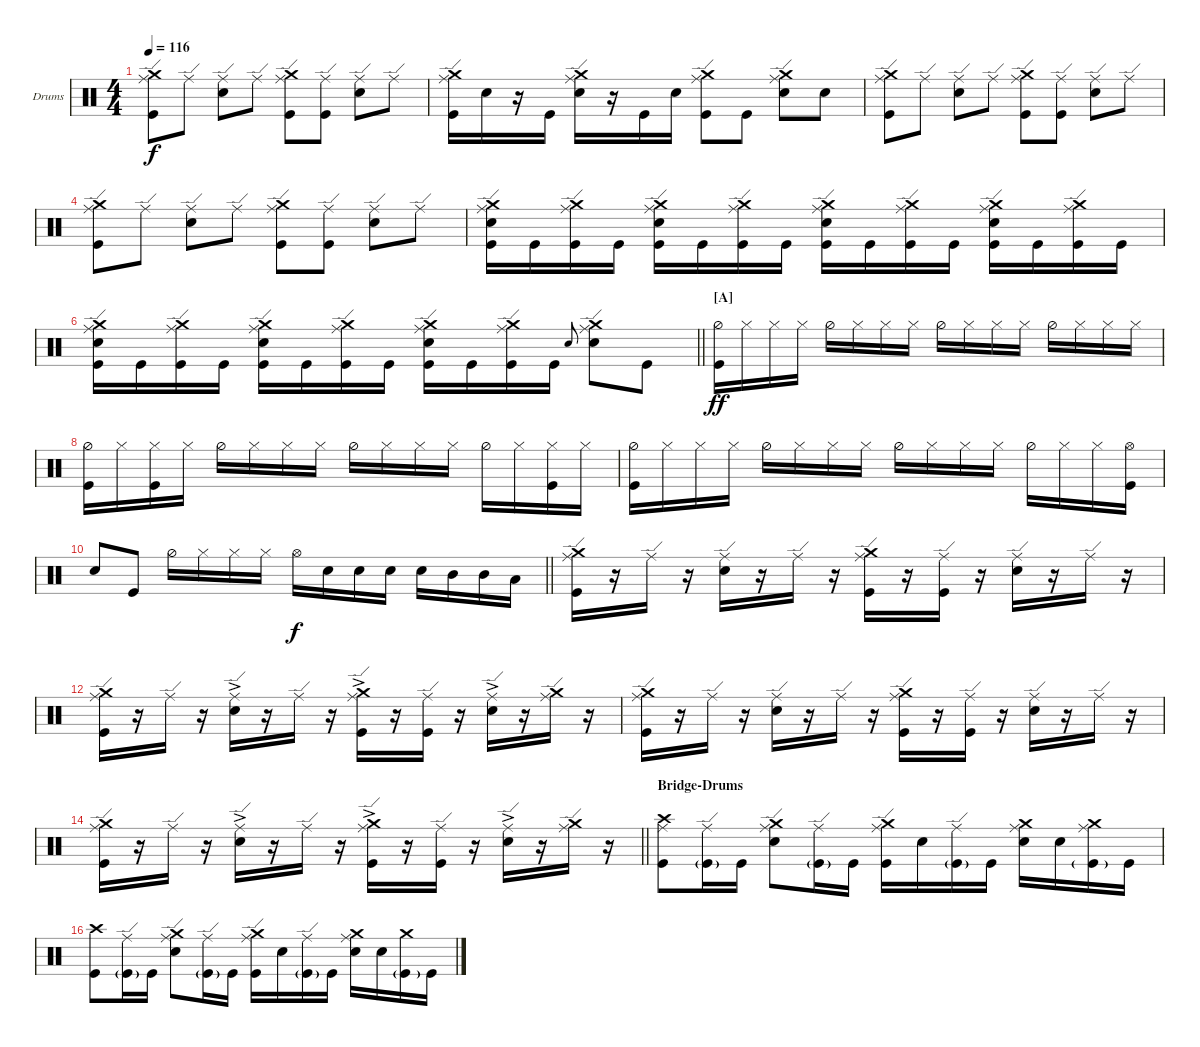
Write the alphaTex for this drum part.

\bracketExtendMode nobrackets
\firstSystemTrackNameOrientation horizontal
\otherSystemsTrackNameOrientation horizontal
\defaultBarNumberDisplay FirstOfSystem
\track ("Drumkit" "Drums") {instrument percussion}
\staff {score}
\articulation defaults
\ts (4 4)
\tempo 116
\clef neutral
\scale
0.514286
\ks c
("Kick (hit)" "Ride (edge)" "Crash medium (hit)").8{dy f} "Ride (edge)".8 ("Snare (hit) 2" "Ride (edge)").8 "Ride (edge)".8 ("Kick (hit)" "Ride (edge)" "Crash medium (hit)").8 ("Kick (hit)" "Ride (edge)").8 ("Snare (hit) 2" "Ride (edge)").8 "Ride (edge)".8 |
\scale
0.485714 ("Kick (hit)" "Ride (edge)" "Crash medium (hit)").16 "Snare (hit) 2".16 r.16 "Kick (hit)".16 ("Snare (hit) 2" "Ride (edge)" "Crash medium (hit)").16 r.16 "Kick (hit)".16 "Snare (hit) 2".16 ("Kick (hit)" "Ride (edge)" "Crash medium (hit)").8 "Kick (hit)".8 ("Snare (hit) 2" "Ride (edge)" "Crash medium (hit)").8 "Snare (hit) 2".8 |
\scale
0.514286 ("Kick (hit)" "Ride (edge)" "Crash medium (hit)").8 "Ride (edge)".8 ("Snare (hit) 2" "Ride (edge)").8 "Ride (edge)".8 ("Kick (hit)" "Ride (edge)" "Crash medium (hit)").8 ("Kick (hit)" "Ride (edge)").8 ("Snare (hit) 2" "Ride (edge)").8 "Ride (edge)".8 |
\scale
0.485714 ("Kick (hit)" "Ride (edge)" "Crash medium (hit)").8 "Ride (edge)".8 ("Snare (hit) 2" "Ride (edge)").8 "Ride (edge)".8 ("Kick (hit)" "Ride (edge)" "Crash medium (hit)").8 ("Kick (hit)" "Ride (edge)").8 ("Snare (hit) 2" "Ride (edge)").8 "Ride (edge)".8 |
\scale
0.507764 ("Crash medium (hit)" "Ride (edge)" "Snare (hit) 2" "Kick (hit)").16 "Kick (hit)".16 ("Crash medium (hit)" "Ride (edge)" "Kick (hit)").16 "Kick (hit)".16 ("Crash medium (hit)" "Ride (edge)" "Snare (hit) 2" "Kick (hit)").16 "Kick (hit)".16 ("Crash medium (hit)" "Ride (edge)" "Kick (hit)").16 "Kick (hit)".16 ("Crash medium (hit)" "Ride (edge)" "Snare (hit) 2" "Kick (hit)").16 "Kick (hit)".16 ("Crash medium (hit)" "Ride (edge)" "Kick (hit)").16 "Kick (hit)".16 ("Crash medium (hit)" "Ride (edge)" "Snare (hit) 2" "Kick (hit)").16 "Kick (hit)".16 ("Crash medium (hit)" "Ride (edge)" "Kick (hit)").16 "Kick (hit)".16 |
\scale
0.492236
\barLineRight lightlight
("Crash medium (hit)" "Ride (edge)" "Snare (hit) 2" "Kick (hit)").16 "Kick (hit)".16 ("Crash medium (hit)" "Ride (edge)" "Kick (hit)").16 "Kick (hit)".16 ("Crash medium (hit)" "Ride (edge)" "Snare (hit) 2" "Kick (hit)").16 "Kick (hit)".16 ("Crash medium (hit)" "Ride (edge)" "Kick (hit)").16 "Kick (hit)".16 ("Crash medium (hit)" "Ride (edge)" "Snare (hit) 2" "Kick (hit)").16 "Kick (hit)".16 ("Crash medium (hit)" "Ride (edge)" "Kick (hit)").16 "Kick (hit)".16 "Snare (hit) 2".8{gr onbeat} ("Crash medium (hit)" "Ride (edge)" "Snare (hit) 2").8 "Kick (hit)".8 |
\section ("A" "")
\scale
0.512275 ("Hi-Hat (half)" "Kick (hit)").16{dy ff} "Hi-Hat (closed)".16 "Hi-Hat (closed)".16 "Hi-Hat (closed)".16 "Hi-Hat (half)".16 "Hi-Hat (closed)".16 "Hi-Hat (closed)".16 "Hi-Hat (closed)".16 "Hi-Hat (half)".16 "Hi-Hat (closed)".16 "Hi-Hat (closed)".16 "Hi-Hat (closed)".16 "Hi-Hat (half)".16 "Hi-Hat (closed)".16 "Hi-Hat (closed)".16 "Hi-Hat (closed)".16 |
\scale
0.487725 ("Hi-Hat (half)" "Kick (hit)").16 "Hi-Hat (closed)".16 ("Hi-Hat (closed)" "Kick (hit)").16 "Hi-Hat (closed)".16 "Hi-Hat (half)".16 "Hi-Hat (closed)".16 "Hi-Hat (closed)".16 "Hi-Hat (closed)".16 "Hi-Hat (half)".16 "Hi-Hat (closed)".16 "Hi-Hat (closed)".16 "Hi-Hat (closed)".16 "Hi-Hat (half)".16 "Hi-Hat (closed)".16 ("Hi-Hat (closed)" "Kick (hit)").16 "Hi-Hat (closed)".16 |
\scale
0.487725 ("Hi-Hat (half)" "Kick (hit)").16 "Hi-Hat (closed)".16 "Hi-Hat (closed)".16 "Hi-Hat (closed)".16 "Hi-Hat (half)".16 "Hi-Hat (closed)".16 "Hi-Hat (closed)".16 "Hi-Hat (closed)".16 "Hi-Hat (half)".16 "Hi-Hat (closed)".16 "Hi-Hat (closed)".16 "Hi-Hat (closed)".16 "Hi-Hat (half)".16 "Hi-Hat (closed)".16 "Hi-Hat (closed)".16 ("Hi-Hat (open)" "Kick (hit)").16 |
\scale
0.512275
\barLineRight lightlight "Snare (hit) 2".8 "Kick (hit)".8 "Hi-Hat (half)".16 "Hi-Hat (closed)".16 "Hi-Hat (closed)".16 "Hi-Hat (closed)".16 "Hi-Hat (open)".16{dy f} "Snare (hit) 2".16 "Snare (hit) 2".16 "Snare (hit) 2".16 "Snare (hit) 2".16 "Mid Tom (hit)".16 "Mid Tom (hit)".16 "Low Tom (hit)".16
|
\scale
0.5 ("Kick (hit)" "Ride (edge)" "Crash medium (hit)").16 r.16 "Ride (edge)".16 r.16 ("Snare (hit) 2" "Ride (edge)").16 r.16 "Ride (edge)".16 r.16 ("Kick (hit)" "Ride (edge)" "Crash medium (hit)").16 r.16 ("Kick (hit)" "Ride (edge)").16 r.16 ("Snare (hit) 2" "Ride (edge)").16 r.16 "Ride (edge)".16 r.16 |
\scale
0.5 ("Kick (hit)" "Ride (edge)" "Crash medium (hit)").16 r.16 "Ride (edge)".16 r.16 ("Snare (hit) 2"{ac} "Ride (edge)").16 r.16 "Ride (edge)".16 r.16 ("Kick (hit)"{ac} "Ride (edge)" "Crash medium (hit)").16 r.16 ("Kick (hit)" "Ride (edge)").16 r.16 ("Snare (hit) 2"{ac} "Ride (edge)").16 r.16 ("Ride (edge)" "Crash medium (hit)").16 r.16 |
\scale
0.5 ("Kick (hit)" "Ride (edge)" "Crash medium (hit)").16 r.16 "Ride (edge)".16 r.16 ("Snare (hit) 2" "Ride (edge)").16 r.16 "Ride (edge)".16 r.16 ("Kick (hit)" "Ride (edge)" "Crash medium (hit)").16 r.16 ("Kick (hit)" "Ride (edge)").16 r.16 ("Snare (hit) 2" "Ride (edge)").16 r.16 "Ride (edge)".16 r.16 |
\scale
0.5
\barLineRight lightlight
("Kick (hit)" "Ride (edge)" "Crash medium (hit)").16 r.16 "Ride (edge)".16 r.16 ("Snare (hit) 2"{ac} "Ride (edge)").16 r.16 "Ride (edge)".16 r.16 ("Kick (hit)"{ac} "Ride (edge)" "Crash medium (hit)").16 r.16 ("Kick (hit)" "Ride (edge)").16 r.16 ("Snare (hit) 2"{ac} "Ride (edge)").16 r.16 ("Ride (edge)" "Crash medium (hit)").16 r.16 |
\section ("" "Bridge-Drums")
\scale
0.5 ("Ride (middle)" "Kick (hit)" "Crash high (hit)").8 ("Ride (edge)" "Kick (hit)"{g}).16 "Kick (hit)".16 ("Ride (edge)" "Snare (hit) 2" "Crash medium (hit)").8 ("Ride (edge)" "Kick (hit)"{g}).16 "Kick (hit)".16 ("Crash medium (hit)" "Ride (edge)" "Kick (hit)").16 "Snare (hit) 2".16 ("Ride (edge)" "Kick (hit)"{g}).16 "Kick (hit)".16 ("Crash medium (hit)" "Ride (middle)" "Snare (hit) 2").16 "Snare (hit) 2".16 ("Ride (middle)" "Kick (hit)"{g} "Crash medium (hit)").16 "Kick (hit)".16 |
\scale
0.5 ("Kick (hit)" "Crash high (hit)").8 ("Ride (edge)" "Kick (hit)"{g}).16 "Kick (hit)".16 ("Snare (hit) 2" "Crash medium (hit)" "Ride (edge)").8 ("Ride (edge)" "Kick (hit)"{g}).16 "Kick (hit)".16 ("Crash medium (hit)" "Ride (edge)" "Kick (hit)").16 "Snare (hit) 2".16 ("Ride (edge)" "Kick (hit)"{g}).16 "Kick (hit)".16 ("Crash medium (hit)" "Ride (middle)" "Snare (hit) 2").16 "Snare (hit) 2".16 ("Kick (hit)"{g} "Crash medium (hit)").16 "Kick (hit)".16
